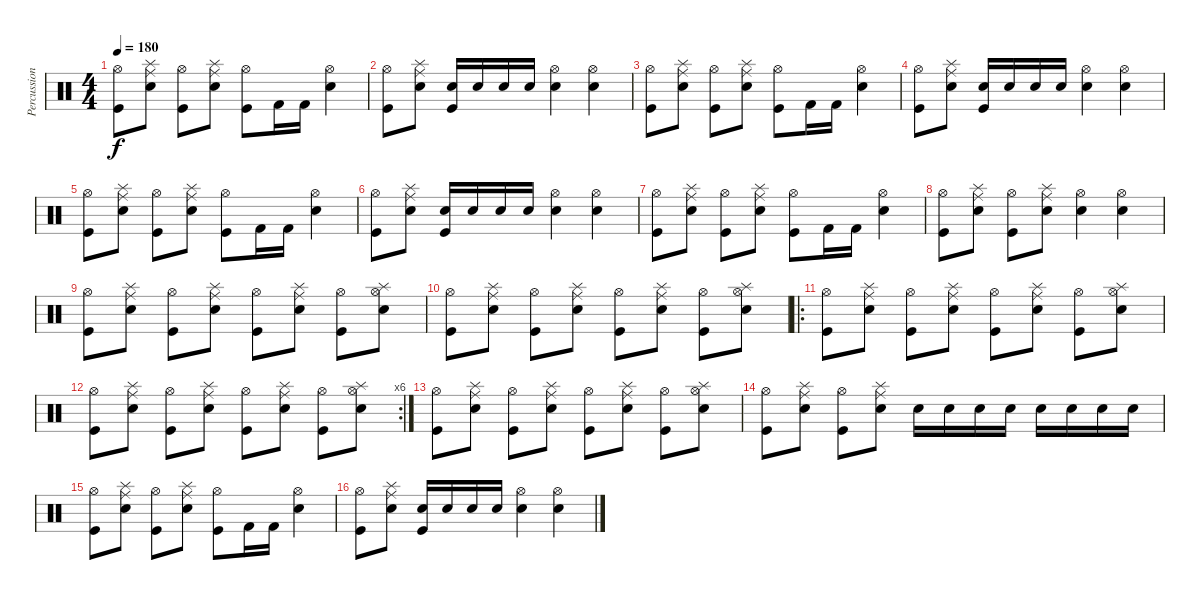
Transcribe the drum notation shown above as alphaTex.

\track ("Percussions" "Percussion") {instrument percussion}
\staff {score}
\articulation defaults
\ts (4 4)
\tempo 180
\clef neutral
\ks c
("Kick (hit)" "Hi-Hat (open)").8{dy f} ("Snare (hit) 2" "Ride (middle)" "Splash (hit)").8 ("Kick (hit)" "Hi-Hat (open)").8 ("Snare (hit) 2" "Ride (middle)" "Splash (hit)").8 ("Kick (hit)" "Hi-Hat (open)").8 "Kick (hit) 2".16 "Kick (hit) 2".16 ("Hi-Hat (open)" "Electric Snare (hit)").4 |
("Kick (hit)" "Hi-Hat (open)").8 ("Snare (hit) 2" "Ride (middle)" "Splash (hit)").8 ("Electric Snare (hit)" "Kick (hit)").16 "Electric Snare (hit)".16 "Electric Snare (hit)".16 "Electric Snare (hit)".16 ("Hi-Hat (open)" "Electric Snare (hit)").4 ("Hi-Hat (open)" "Electric Snare (hit)").4 |
("Kick (hit)" "Hi-Hat (open)").8 ("Snare (hit) 2" "Ride (middle)" "Splash (hit)").8 ("Kick (hit)" "Hi-Hat (open)").8 ("Snare (hit) 2" "Ride (middle)" "Splash (hit)").8 ("Kick (hit)" "Hi-Hat (open)").8 "Kick (hit) 2".16 "Kick (hit) 2".16 ("Hi-Hat (open)" "Electric Snare (hit)").4 |
("Kick (hit)" "Hi-Hat (open)").8 ("Snare (hit) 2" "Ride (middle)" "Splash (hit)").8 ("Electric Snare (hit)" "Kick (hit)").16 "Electric Snare (hit)".16 "Electric Snare (hit)".16 "Electric Snare (hit)".16 ("Hi-Hat (open)" "Electric Snare (hit)").4 ("Hi-Hat (open)" "Electric Snare (hit)").4 |
("Kick (hit)" "Hi-Hat (open)").8 ("Snare (hit) 2" "Ride (middle)" "Splash (hit)").8 ("Kick (hit)" "Hi-Hat (open)").8 ("Snare (hit) 2" "Ride (middle)" "Splash (hit)").8 ("Kick (hit)" "Hi-Hat (open)").8 "Kick (hit) 2".16 "Kick (hit) 2".16 ("Hi-Hat (open)" "Electric Snare (hit)").4 |
("Kick (hit)" "Hi-Hat (open)").8 ("Snare (hit) 2" "Ride (middle)" "Splash (hit)").8 ("Electric Snare (hit)" "Kick (hit)").16 "Electric Snare (hit)".16 "Electric Snare (hit)".16 "Electric Snare (hit)".16 ("Hi-Hat (open)" "Electric Snare (hit)").4 ("Hi-Hat (open)" "Electric Snare (hit)").4 |
("Kick (hit)" "Hi-Hat (open)").8 ("Snare (hit) 2" "Ride (middle)" "Splash (hit)").8 ("Kick (hit)" "Hi-Hat (open)").8 ("Snare (hit) 2" "Ride (middle)" "Splash (hit)").8 ("Kick (hit)" "Hi-Hat (open)").8 "Kick (hit) 2".16 "Kick (hit) 2".16 ("Hi-Hat (open)" "Electric Snare (hit)").4 |
("Kick (hit)" "Hi-Hat (open)").8 ("Snare (hit) 2" "Ride (middle)" "Splash (hit)").8 ("Kick (hit)" "Hi-Hat (open)").8 ("Snare (hit) 2" "Ride (middle)" "Splash (hit)").8 ("Hi-Hat (open)" "Electric Snare (hit)").4 ("Hi-Hat (open)" "Electric Snare (hit)").4 |
("Kick (hit)" "Hi-Hat (open)").8 ("Snare (hit) 2" "Ride (middle)" "Splash (hit)").8 ("Kick (hit)" "Hi-Hat (open)").8 ("Snare (hit) 2" "Ride (middle)" "Splash (hit)").8 ("Kick (hit)" "Hi-Hat (open)").8 ("Snare (hit) 2" "Ride (middle)" "Splash (hit)").8 ("Kick (hit)" "Hi-Hat (open)").8 ("Snare (hit) 2" "Hi-Hat (open)" "Splash (hit)").8 |
("Kick (hit)" "Hi-Hat (open)").8 ("Snare (hit) 2" "Ride (middle)" "Splash (hit)").8 ("Kick (hit)" "Hi-Hat (open)").8 ("Snare (hit) 2" "Ride (middle)" "Splash (hit)").8 ("Kick (hit)" "Hi-Hat (open)").8 ("Snare (hit) 2" "Ride (middle)" "Splash (hit)").8 ("Kick (hit)" "Hi-Hat (open)").8 ("Snare (hit) 2" "Hi-Hat (open)" "Splash (hit)").8 |
\ro
("Kick (hit)" "Hi-Hat (open)").8 ("Snare (hit) 2" "Ride (middle)" "Splash (hit)").8 ("Kick (hit)" "Hi-Hat (open)").8 ("Snare (hit) 2" "Ride (middle)" "Splash (hit)").8 ("Kick (hit)" "Hi-Hat (open)").8 ("Snare (hit) 2" "Ride (middle)" "Splash (hit)").8 ("Kick (hit)" "Hi-Hat (open)").8 ("Snare (hit) 2" "Hi-Hat (open)" "Splash (hit)").8 |
\rc 6
("Kick (hit)" "Hi-Hat (open)").8 ("Snare (hit) 2" "Ride (middle)" "Splash (hit)").8 ("Kick (hit)" "Hi-Hat (open)").8 ("Snare (hit) 2" "Ride (middle)" "Splash (hit)").8 ("Kick (hit)" "Hi-Hat (open)").8 ("Snare (hit) 2" "Ride (middle)" "Splash (hit)").8 ("Kick (hit)" "Hi-Hat (open)").8 ("Snare (hit) 2" "Hi-Hat (open)" "Splash (hit)").8 |
("Kick (hit)" "Hi-Hat (open)").8 ("Snare (hit) 2" "Ride (middle)" "Splash (hit)").8 ("Kick (hit)" "Hi-Hat (open)").8 ("Snare (hit) 2" "Ride (middle)" "Splash (hit)").8 ("Kick (hit)" "Hi-Hat (open)").8 ("Snare (hit) 2" "Ride (middle)" "Splash (hit)").8 ("Kick (hit)" "Hi-Hat (open)").8 ("Snare (hit) 2" "Hi-Hat (open)" "Splash (hit)").8 |
("Kick (hit)" "Hi-Hat (open)").8 ("Snare (hit) 2" "Ride (middle)" "Splash (hit)").8 ("Kick (hit)" "Hi-Hat (open)").8 ("Snare (hit) 2" "Ride (middle)" "Splash (hit)").8 "Electric Snare (hit)".16 "Electric Snare (hit)".16 "Electric Snare (hit)".16 "Electric Snare (hit)".16 "Electric Snare (hit)".16 "Electric Snare (hit)".16 "Electric Snare (hit)".16 "Electric Snare (hit)".16 |
("Kick (hit)" "Hi-Hat (open)").8 ("Snare (hit) 2" "Ride (middle)" "Splash (hit)").8 ("Kick (hit)" "Hi-Hat (open)").8 ("Snare (hit) 2" "Ride (middle)" "Splash (hit)").8 ("Kick (hit)" "Hi-Hat (open)").8 "Kick (hit) 2".16 "Kick (hit) 2".16 ("Hi-Hat (open)" "Electric Snare (hit)").4 |
("Kick (hit)" "Hi-Hat (open)").8 ("Snare (hit) 2" "Ride (middle)" "Splash (hit)").8 ("Electric Snare (hit)" "Kick (hit)").16 "Electric Snare (hit)".16 "Electric Snare (hit)".16 "Electric Snare (hit)".16 ("Hi-Hat (open)" "Electric Snare (hit)").4 ("Hi-Hat (open)" "Electric Snare (hit)").4
